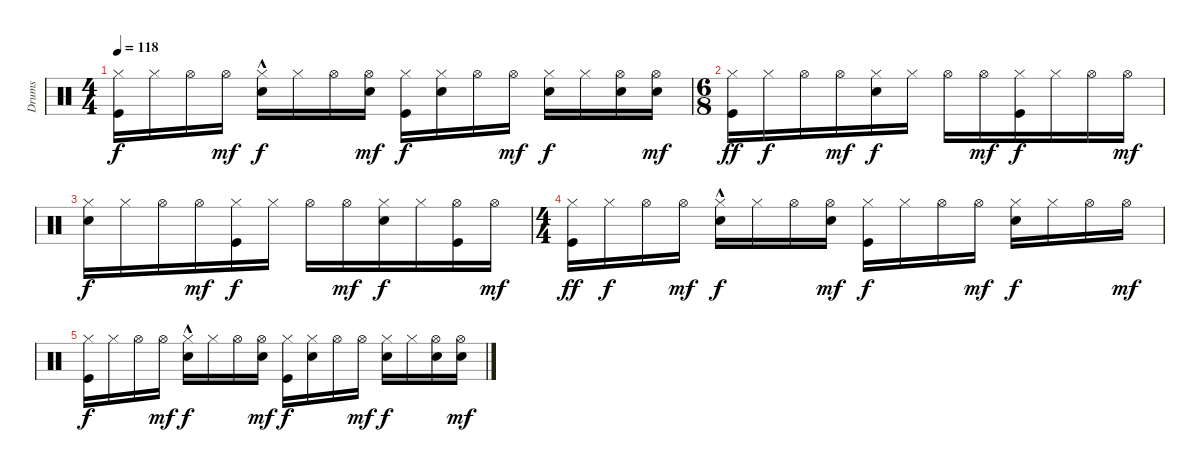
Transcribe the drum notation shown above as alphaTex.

\track ("Drums" "Drums") {instrument percussion}
\staff {score}
\articulation defaults
\ts (4 4)
\tempo 118
\clef neutral
\ks c
("Kick (hit)" "Hi-Hat (closed)").16{dy f} "Hi-Hat (closed)".16 "Hi-Hat (open)".16 "Hi-Hat (open)".16{dy mf} ("Electric Snare (hit)"{hac} "Hi-Hat (closed)").16{dy f} "Hi-Hat (closed)".16 "Hi-Hat (open)".16 ("Hi-Hat (open)" "Electric Snare (hit)").16{dy mf} ("Hi-Hat (closed)" "Kick (hit)").16{dy f} ("Electric Snare (hit)" "Hi-Hat (closed)").16 "Hi-Hat (open)".16 "Hi-Hat (open)".16{dy mf} ("Electric Snare (hit)" "Hi-Hat (closed)").16{dy f} "Hi-Hat (closed)".16 ("Electric Snare (hit)" "Hi-Hat (open)").16 ("Electric Snare (hit)" "Hi-Hat (open)").16{dy mf} |
\ts (6 8)
("Hi-Hat (closed)" "Kick (hit)").16{dy ff} "Hi-Hat (closed)".16{dy f} "Hi-Hat (open)".16 "Hi-Hat (open)".16{dy mf} ("Electric Snare (hit)" "Hi-Hat (closed)").16{dy f} "Hi-Hat (closed)".16 "Hi-Hat (open)".16 "Hi-Hat (open)".16{dy mf} ("Kick (hit)" "Hi-Hat (closed)").16{dy f} "Hi-Hat (closed)".16 "Hi-Hat (open)".16 "Hi-Hat (open)".16{dy mf} |
("Electric Snare (hit)" "Hi-Hat (closed)").16{dy f} "Hi-Hat (closed)".16 "Hi-Hat (open)".16 "Hi-Hat (open)".16{dy mf} ("Kick (hit)" "Hi-Hat (closed)").16{dy f} "Hi-Hat (closed)".16 "Hi-Hat (open)".16 "Hi-Hat (open)".16{dy mf} ("Electric Snare (hit)" "Hi-Hat (closed)").16{dy f} "Hi-Hat (closed)".16 ("Kick (hit)" "Hi-Hat (open)").16 "Hi-Hat (open)".16{dy mf} |
\ts (4 4)
("Kick (hit)" "Hi-Hat (closed)").16{dy ff} "Hi-Hat (closed)".16{dy f volume 13} "Hi-Hat (open)".16{volume 12} "Hi-Hat (open)".16{dy mf volume 12} ("Electric Snare (hit)"{hac} "Hi-Hat (closed)").16{dy f volume 12} "Hi-Hat (closed)".16{volume 11} "Hi-Hat (open)".16{volume 11} ("Hi-Hat (open)" "Electric Snare (hit)").16{dy mf volume 10} ("Hi-Hat (closed)" "Kick (hit)").16{dy f volume 10} "Hi-Hat (closed)".16{volume 10} "Hi-Hat (open)".16{volume 10} "Hi-Hat (open)".16{dy mf volume 9} ("Electric Snare (hit)" "Hi-Hat (closed)").16{dy f volume 9} "Hi-Hat (closed)".16{volume 8} "Hi-Hat (open)".16{volume 8} "Hi-Hat (open)".16{dy mf volume 8} |
("Kick (hit)" "Hi-Hat (closed)").16{dy f volume 7} "Hi-Hat (closed)".16{volume 7} "Hi-Hat (open)".16{volume 7} "Hi-Hat (open)".16{dy mf volume 6} ("Electric Snare (hit)"{hac} "Hi-Hat (closed)").16{dy f volume 6} "Hi-Hat (closed)".16{volume 6} "Hi-Hat (open)".16{volume 5} ("Hi-Hat (open)" "Electric Snare (hit)").16{dy mf volume 5} ("Hi-Hat (closed)" "Kick (hit)").16{dy f volume 5} ("Electric Snare (hit)" "Hi-Hat (closed)").16{volume 4} "Hi-Hat (open)".16{volume 4} "Hi-Hat (open)".16{dy mf volume 4} ("Electric Snare (hit)" "Hi-Hat (closed)").16{dy f volume 3} "Hi-Hat (closed)".16{volume 3} ("Electric Snare (hit)" "Hi-Hat (open)").16{volume 3} ("Electric Snare (hit)" "Hi-Hat (open)").16{dy mf volume 2}
